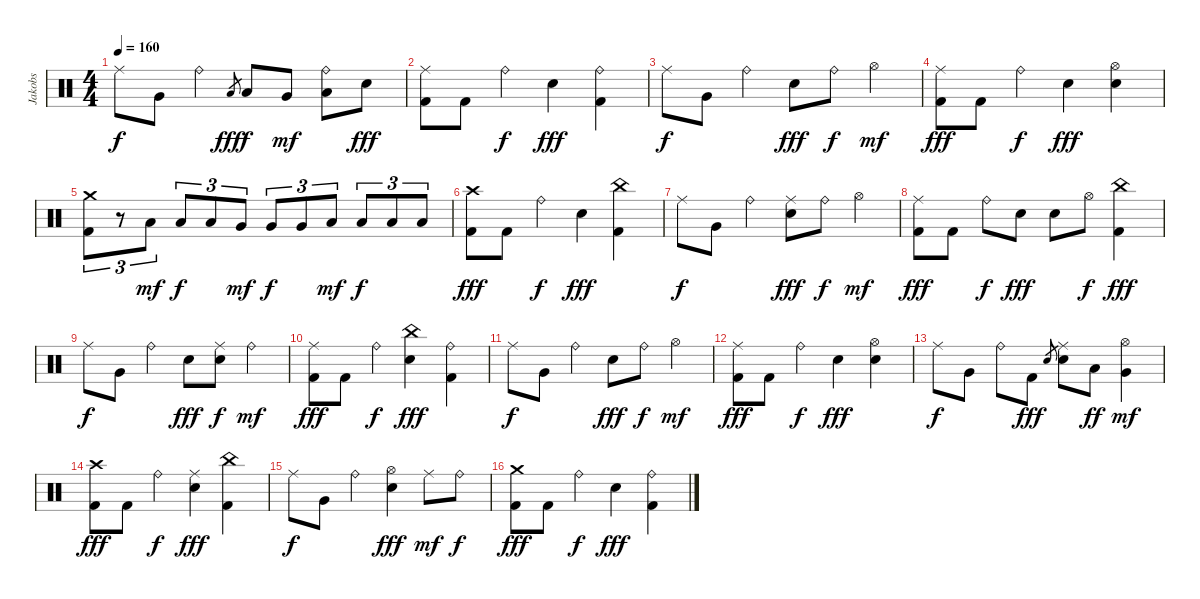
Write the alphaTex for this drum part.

\track ("Jakobs" "Jakobs") {instrument percussion}
\staff {score}
\articulation defaults
\ts (4 4)
\tempo 160
\clef neutral
\ks c "Ride (middle)".8{dy f} "Very Low Tom (hit)".8 "Ride (bell)".4 "Low Tom (hit)".8{gr dy fff} "Low Tom (hit)".8{dy f} "Very Low Tom (hit)".8{dy mf}
("Ride (bell)" "Low Floor Tom (hit)").8 "Snare (hit) 2".8{dy fff} |
("Ride (middle)" "Kick (hit) 2").8 "Kick (hit) 2".8 "Ride (bell)".4{dy f} "Snare (hit) 2".4{dy fff} ("Ride (bell)" "Kick (hit) 2").4 |
"Ride (middle)".8{dy f} "Very Low Tom (hit)".8 "Ride (bell)".4 "Snare (hit) 2".8{dy fff} "Ride (bell)".8{dy f} "Hi-Hat (open)".4{dy mf} |
("Ride (middle)" "Kick (hit) 2").8{dy fff} "Kick (hit) 2".8 "Ride (bell)".4{dy f} "Snare (hit) 2".4{dy fff} ("Hi-Hat (open)" "Snare (hit) 2").4 |
("Crash medium (hit)" "Kick (hit) 2").8{tu (3 2)} r.8{tu (3 2)} "Low Tom (hit)".8{tu (3 2) dy mf} "Low Tom (hit)".8{tu (3 2) dy f} "Low Tom (hit)".8{tu (3 2)} "Very Low Tom (hit)".8{tu (3 2) dy mf} "Very Low Tom (hit)".8{tu (3 2) dy f} "Very Low Tom (hit)".8{tu (3 2)} "Low Floor Tom (hit)".8{tu (3 2) dy mf} "Low Floor Tom (hit)".8{tu (3 2) dy f} "Low Floor Tom (hit)".8{tu (3 2)} "Low Floor Tom (hit)".8{tu (3 2)} |
("Crash high (hit)" "Kick (hit) 2").8{dy fff} "Kick (hit) 2".8 "Ride (bell)".4{dy f} "Snare (hit) 2".4{dy fff} ("China (hit)" "Kick (hit) 2").4 |
"Ride (middle)".8{dy f} "Very Low Tom (hit)".8 "Ride (bell)".4 ("Ride (middle)" "Snare (hit) 2").8{dy fff} "Ride (bell)".8{dy f} "Hi-Hat (open)".4{dy mf} |
("Ride (middle)" "Kick (hit) 2").8{dy fff} "Kick (hit) 2".8 "Ride (bell)".8{dy f} "Snare (hit) 2".8{dy fff} "Snare (hit) 2".8 "Hi-Hat (open)".8{dy f} ("China (hit)" "Kick (hit) 2").4{dy fff} |
"Ride (middle)".8{dy f} "Very Low Tom (hit)".8 "Ride (bell)".4 "Snare (hit) 2".8{dy fff} ("Ride (middle)" "Snare (hit) 2").8{dy f} "Ride (bell)".4{dy mf} |
("Ride (middle)" "Kick (hit) 2").8{dy fff} "Kick (hit) 2".8 "Ride (bell)".4{dy f} ("China (hit)" "Snare (hit) 2").4{dy fff} ("Ride (bell)" "Kick (hit) 2").4 |
"Ride (middle)".8{dy f} "Very Low Tom (hit)".8 "Ride (bell)".4 "Snare (hit) 2".8{dy fff} "Ride (bell)".8{dy f} "Hi-Hat (open)".4{dy mf} |
("Ride (middle)" "Kick (hit) 2").8{dy fff} "Kick (hit) 2".8 "Ride (bell)".4{dy f} "Snare (hit) 2".4{dy fff} ("Hi-Hat (open)" "Snare (hit) 2").4 |
"Ride (middle)".8{dy f} "Very Low Tom (hit)".8 "Ride (bell)".8 "Kick (hit) 2".8{dy fff} "Snare (hit) 2".8{gr} ("Ride (middle)" "Snare (hit) 2").8 "Low Tom (hit)".8{dy ff} ("Hi-Hat (open)" "Very Low Tom (hit)").4{dy mf} |
("Crash high (hit)" "Kick (hit) 2").8{dy fff} "Kick (hit) 2".8 "Ride (bell)".4{dy f} ("Ride (middle)" "Snare (hit) 2").4{dy fff} ("China (hit)" "Kick (hit) 2").4 |
"Ride (middle)".8{dy f} "Very Low Tom (hit)".8 "Ride (bell)".4 ("Hi-Hat (open)" "Snare (hit) 2").4{dy fff} "Ride (middle)".8{dy mf} "Ride (bell)".8{dy f} |
("Crash medium (hit)" "Kick (hit) 2").8{dy fff} "Kick (hit) 2".8 "Ride (bell)".4{dy f} "Snare (hit) 2".4{dy fff} ("Ride (bell)" "Kick (hit) 2").4
